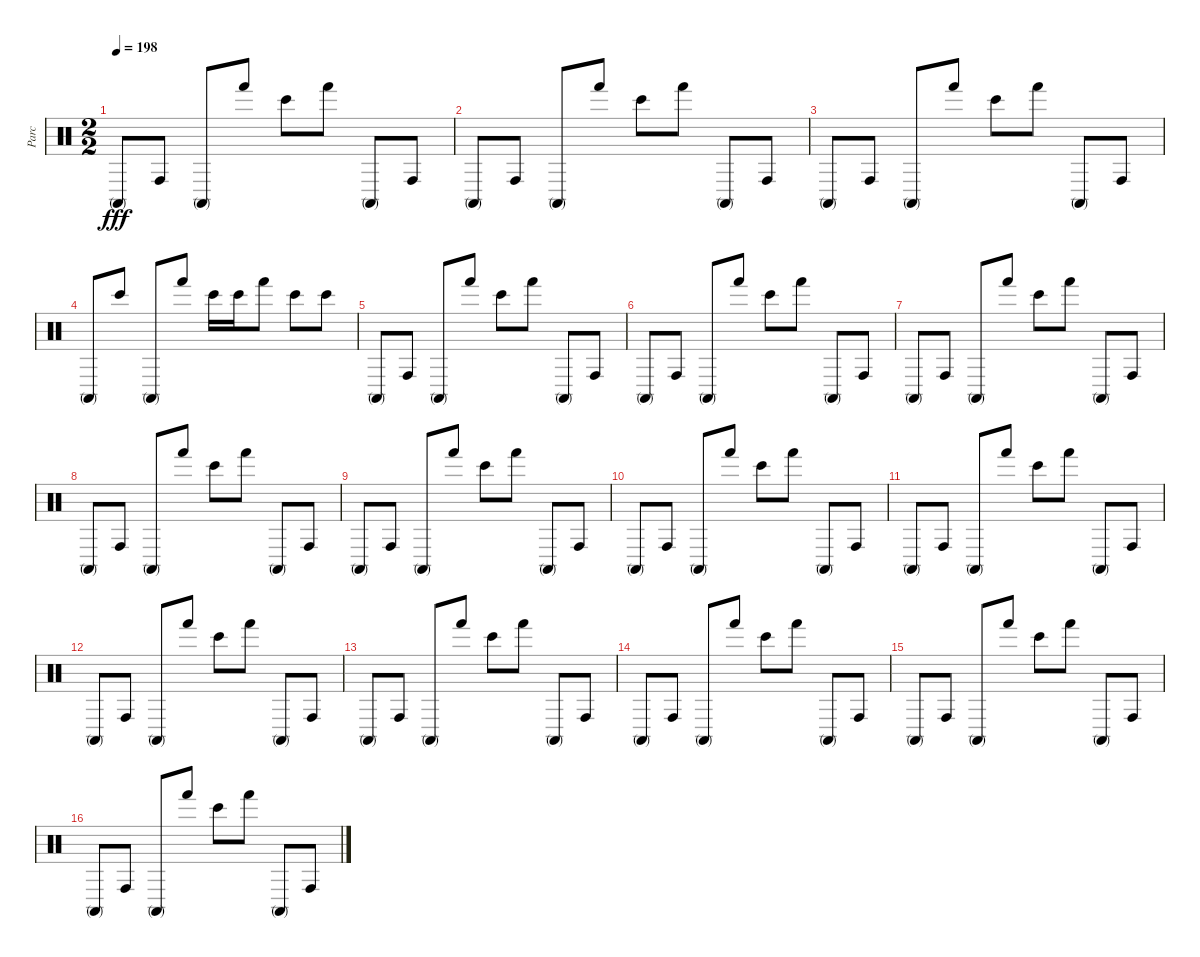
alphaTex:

\track ("Parc" "Parc") {instrument percussion}
\staff {score}
\articulation defaults
\ts (2 2)
\tempo 198
\clef neutral
\ks c "Conga high (mute)".8{dy fff} "Conga high (hit)".8 "Conga high (mute)".8 "Hand (hit)".8 "Bongo High (hit)".8 "Hand (hit)".8 "Conga high (mute)".8 "Conga high (hit)".8
|
"Conga high (mute)".8 "Conga high (hit)".8 "Conga high (mute)".8 "Hand (hit)".8 "Bongo High (hit)".8 "Hand (hit)".8 "Conga high (mute)".8 "Conga high (hit)".8 |
"Conga high (mute)".8 "Conga high (hit)".8 "Conga high (mute)".8 "Hand (hit)".8 "Bongo High (hit)".8 "Hand (hit)".8 "Conga high (mute)".8 "Conga high (hit)".8 |
"Conga high (mute)".8 "Bongo High (hit)".8 "Conga high (mute)".8 "Hand (hit)".8 "Bongo High (hit)".16 "Bongo High (hit)".16 "Hand (hit)".8 "Bongo High (hit)".8 "Bongo High (hit)".8 |
"Conga high (mute)".8 "Conga high (hit)".8 "Conga high (mute)".8 "Hand (hit)".8 "Bongo High (hit)".8 "Hand (hit)".8 "Conga high (mute)".8 "Conga high (hit)".8 |
"Conga high (mute)".8 "Conga high (hit)".8 "Conga high (mute)".8 "Hand (hit)".8 "Bongo High (hit)".8 "Hand (hit)".8 "Conga high (mute)".8 "Conga high (hit)".8 |
"Conga high (mute)".8 "Conga high (hit)".8 "Conga high (mute)".8 "Hand (hit)".8 "Bongo High (hit)".8 "Hand (hit)".8 "Conga high (mute)".8 "Conga high (hit)".8 |
"Conga high (mute)".8 "Conga high (hit)".8 "Conga high (mute)".8 "Hand (hit)".8 "Bongo High (hit)".8 "Hand (hit)".8 "Conga high (mute)".8 "Conga high (hit)".8 |
"Conga high (mute)".8 "Conga high (hit)".8 "Conga high (mute)".8 "Hand (hit)".8 "Bongo High (hit)".8 "Hand (hit)".8 "Conga high (mute)".8 "Conga high (hit)".8 |
"Conga high (mute)".8 "Conga high (hit)".8 "Conga high (mute)".8 "Hand (hit)".8 "Bongo High (hit)".8 "Hand (hit)".8 "Conga high (mute)".8 "Conga high (hit)".8 |
"Conga high (mute)".8 "Conga high (hit)".8 "Conga high (mute)".8 "Hand (hit)".8 "Bongo High (hit)".8 "Hand (hit)".8 "Conga high (mute)".8 "Conga high (hit)".8 |
"Conga high (mute)".8 "Conga high (hit)".8 "Conga high (mute)".8 "Hand (hit)".8 "Bongo High (hit)".8 "Hand (hit)".8 "Conga high (mute)".8 "Conga high (hit)".8 |
"Conga high (mute)".8 "Conga high (hit)".8 "Conga high (mute)".8 "Hand (hit)".8 "Bongo High (hit)".8 "Hand (hit)".8 "Conga high (mute)".8 "Conga high (hit)".8 |
"Conga high (mute)".8 "Conga high (hit)".8 "Conga high (mute)".8 "Hand (hit)".8 "Bongo High (hit)".8 "Hand (hit)".8 "Conga high (mute)".8 "Conga high (hit)".8 |
"Conga high (mute)".8 "Conga high (hit)".8 "Conga high (mute)".8 "Hand (hit)".8 "Bongo High (hit)".8 "Hand (hit)".8 "Conga high (mute)".8 "Conga high (hit)".8 |
"Conga high (mute)".8 "Conga high (hit)".8 "Conga high (mute)".8 "Hand (hit)".8 "Bongo High (hit)".8 "Hand (hit)".8 "Conga high (mute)".8 "Conga high (hit)".8
